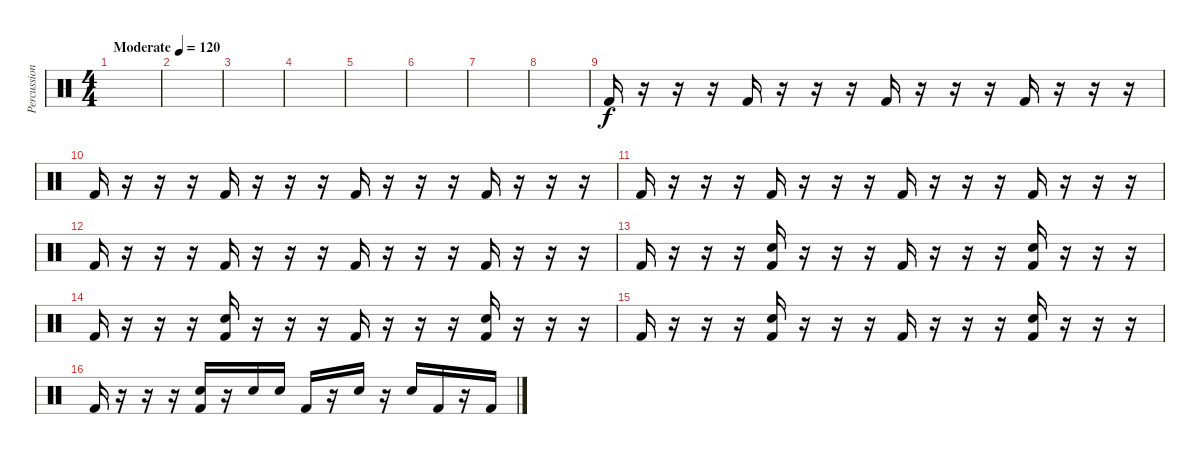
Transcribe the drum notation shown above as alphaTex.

\track ("Percussion" "Percussion") {instrument percussion}
\staff {score}
\articulation defaults
\ts (4 4)
\tempo (120 "Moderate")
\clef neutral
\ks c
|
|
|
|
|
|
|
|
"Kick (hit) 2".16 r.16 r.16 r.16 "Kick (hit) 2".16 r.16 r.16 r.16 "Kick (hit) 2".16 r.16 r.16 r.16 "Kick (hit) 2".16 r.16 r.16 r.16 |
"Kick (hit) 2".16 r.16 r.16 r.16 "Kick (hit) 2".16 r.16 r.16 r.16 "Kick (hit) 2".16 r.16 r.16 r.16 "Kick (hit) 2".16 r.16 r.16 r.16 |
"Kick (hit) 2".16 r.16 r.16 r.16 "Kick (hit) 2".16 r.16 r.16 r.16 "Kick (hit) 2".16 r.16 r.16 r.16 "Kick (hit) 2".16 r.16 r.16 r.16 |
"Kick (hit) 2".16 r.16 r.16 r.16 "Kick (hit) 2".16 r.16 r.16 r.16 "Kick (hit) 2".16 r.16 r.16 r.16 "Kick (hit) 2".16 r.16 r.16 r.16 |
"Kick (hit) 2".16 r.16 r.16 r.16 ("Electric Snare (hit)" "Kick (hit) 2").16 r.16 r.16 r.16 "Kick (hit) 2".16 r.16 r.16 r.16 ("Electric Snare (hit)" "Kick (hit) 2").16 r.16 r.16 r.16 |
"Kick (hit) 2".16 r.16 r.16 r.16 ("Electric Snare (hit)" "Kick (hit) 2").16 r.16 r.16 r.16 "Kick (hit) 2".16 r.16 r.16 r.16 ("Electric Snare (hit)" "Kick (hit) 2").16 r.16 r.16 r.16 |
"Kick (hit) 2".16 r.16 r.16 r.16 ("Electric Snare (hit)" "Kick (hit) 2").16 r.16 r.16 r.16 "Kick (hit) 2".16 r.16 r.16 r.16 ("Electric Snare (hit)" "Kick (hit) 2").16 r.16 r.16 r.16 |
"Kick (hit) 2".16 r.16 r.16 r.16 ("Electric Snare (hit)" "Kick (hit) 2").16 r.16 "Electric Snare (hit)".16 "Electric Snare (hit)".16 "Kick (hit) 2".16 r.16 "Electric Snare (hit)".16 r.16 "Electric Snare (hit)".16 "Kick (hit) 2".16 r.16 "Kick (hit) 2".16
